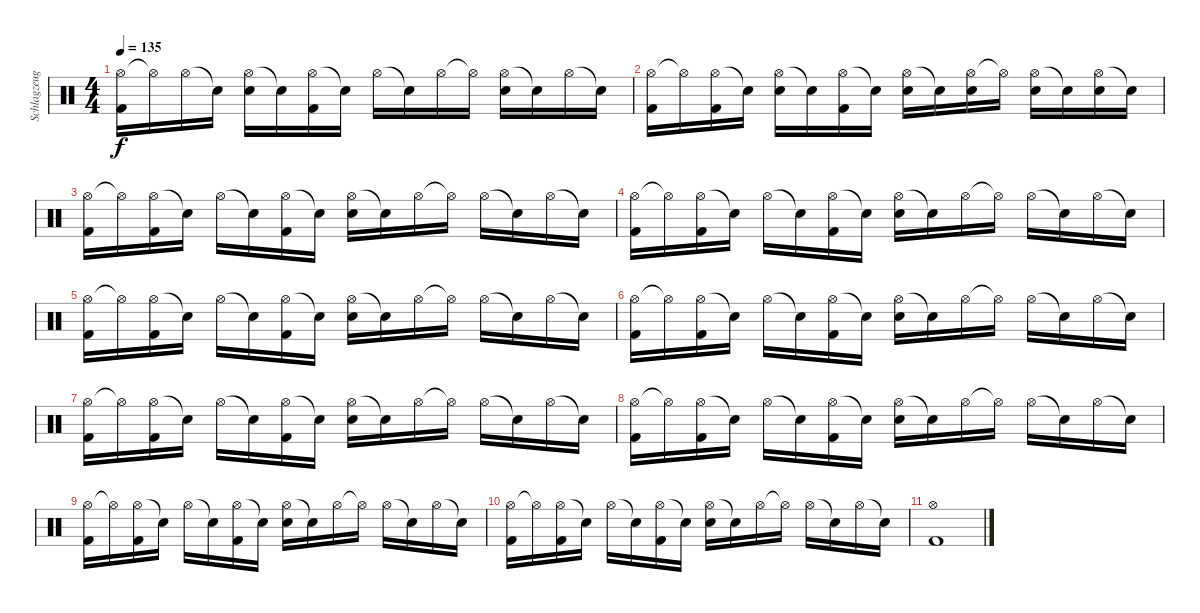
\track ("Schlagzeug" "Schlagzeug") {instrument percussion}
\staff {score}
\articulation defaults
\ts (4 4)
\tempo 135
\clef neutral
\ks c
("Hi-Hat (open)" "Kick (hit) 2").16{dy f} "Hi-Hat (open)"{t}.16 "Hi-Hat (open)".16 "Snare (hit)"{t}.16 ("Hi-Hat (open)" "Snare (hit) 2").16 "Snare (hit)"{t}.16 ("Hi-Hat (open)" "Kick (hit) 2").16 "Snare (hit)"{t}.16 "Hi-Hat (open)".16 "Snare (hit)"{t}.16 "Hi-Hat (open)".16 "Hi-Hat (open)"{t}.16 ("Hi-Hat (open)" "Snare (hit) 2").16 "Snare (hit)"{t}.16 "Hi-Hat (open)".16 "Snare (hit)"{t}.16 |
("Hi-Hat (open)" "Kick (hit) 2").16 "Hi-Hat (open)"{t}.16 ("Hi-Hat (open)" "Kick (hit) 2").16 "Snare (hit)"{t}.16 ("Hi-Hat (open)" "Snare (hit) 2").16 "Snare (hit)"{t}.16 ("Hi-Hat (open)" "Kick (hit) 2").16 "Snare (hit)"{t}.16 ("Hi-Hat (open)" "Snare (hit) 2").16 "Snare (hit)"{t}.16 ("Hi-Hat (open)" "Snare (hit) 2").16 "Hi-Hat (open)"{t}.16 ("Hi-Hat (open)" "Snare (hit) 2").16 "Snare (hit)"{t}.16 ("Hi-Hat (open)" "Snare (hit) 2").16 "Snare (hit)"{t}.16 |
("Hi-Hat (open)" "Kick (hit) 2").16 "Hi-Hat (open)"{t}.16 ("Hi-Hat (open)" "Kick (hit) 2").16 "Snare (hit)"{t}.16 "Hi-Hat (open)".16 "Snare (hit)"{t}.16 ("Hi-Hat (open)" "Kick (hit) 2").16 "Snare (hit)"{t}.16 ("Hi-Hat (open)" "Snare (hit) 2").16 "Snare (hit)"{t}.16 "Hi-Hat (open)".16 "Hi-Hat (open)"{t}.16 "Hi-Hat (open)".16 "Snare (hit)"{t}.16 "Hi-Hat (open)".16 "Snare (hit)"{t}.16 |
("Hi-Hat (open)" "Kick (hit) 2").16 "Hi-Hat (open)"{t}.16 ("Hi-Hat (open)" "Kick (hit) 2").16 "Snare (hit)"{t}.16 "Hi-Hat (open)".16 "Snare (hit)"{t}.16 ("Hi-Hat (open)" "Kick (hit) 2").16 "Snare (hit)"{t}.16 ("Hi-Hat (open)" "Snare (hit) 2").16 "Snare (hit)"{t}.16 "Hi-Hat (open)".16 "Hi-Hat (open)"{t}.16 "Hi-Hat (open)".16 "Snare (hit)"{t}.16 "Hi-Hat (open)".16 "Snare (hit)"{t}.16 |
("Hi-Hat (open)" "Kick (hit) 2").16 "Hi-Hat (open)"{t}.16 ("Hi-Hat (open)" "Kick (hit) 2").16 "Snare (hit)"{t}.16 "Hi-Hat (open)".16 "Snare (hit)"{t}.16 ("Hi-Hat (open)" "Kick (hit) 2").16 "Snare (hit)"{t}.16 ("Hi-Hat (open)" "Snare (hit) 2").16 "Snare (hit)"{t}.16 "Hi-Hat (open)".16 "Hi-Hat (open)"{t}.16 "Hi-Hat (open)".16 "Snare (hit)"{t}.16 "Hi-Hat (open)".16 "Snare (hit)"{t}.16 |
("Hi-Hat (open)" "Kick (hit) 2").16 "Hi-Hat (open)"{t}.16 ("Hi-Hat (open)" "Kick (hit) 2").16 "Snare (hit)"{t}.16 "Hi-Hat (open)".16 "Snare (hit)"{t}.16 ("Hi-Hat (open)" "Kick (hit) 2").16 "Snare (hit)"{t}.16 ("Hi-Hat (open)" "Snare (hit) 2").16 "Snare (hit)"{t}.16 "Hi-Hat (open)".16 "Hi-Hat (open)"{t}.16 "Hi-Hat (open)".16 "Snare (hit)"{t}.16 "Hi-Hat (open)".16 "Snare (hit)"{t}.16 |
("Hi-Hat (open)" "Kick (hit) 2").16 "Hi-Hat (open)"{t}.16 ("Hi-Hat (open)" "Kick (hit) 2").16 "Snare (hit)"{t}.16 "Hi-Hat (open)".16 "Snare (hit)"{t}.16 ("Hi-Hat (open)" "Kick (hit) 2").16 "Snare (hit)"{t}.16 ("Hi-Hat (open)" "Snare (hit) 2").16 "Snare (hit)"{t}.16 "Hi-Hat (open)".16 "Hi-Hat (open)"{t}.16 "Hi-Hat (open)".16 "Snare (hit)"{t}.16 "Hi-Hat (open)".16 "Snare (hit)"{t}.16 |
("Hi-Hat (open)" "Kick (hit) 2").16 "Hi-Hat (open)"{t}.16 ("Hi-Hat (open)" "Kick (hit) 2").16 "Snare (hit)"{t}.16 "Hi-Hat (open)".16 "Snare (hit)"{t}.16 ("Hi-Hat (open)" "Kick (hit) 2").16 "Snare (hit)"{t}.16 ("Hi-Hat (open)" "Snare (hit) 2").16 "Snare (hit)"{t}.16 "Hi-Hat (open)".16 "Hi-Hat (open)"{t}.16 "Hi-Hat (open)".16 "Snare (hit)"{t}.16 "Hi-Hat (open)".16 "Snare (hit)"{t}.16 |
("Hi-Hat (open)" "Kick (hit) 2").16 "Hi-Hat (open)"{t}.16 ("Hi-Hat (open)" "Kick (hit) 2").16 "Snare (hit)"{t}.16 "Hi-Hat (open)".16 "Snare (hit)"{t}.16 ("Hi-Hat (open)" "Kick (hit) 2").16 "Snare (hit)"{t}.16 ("Hi-Hat (open)" "Snare (hit) 2").16 "Snare (hit)"{t}.16 "Hi-Hat (open)".16 "Hi-Hat (open)"{t}.16 "Hi-Hat (open)".16 "Snare (hit)"{t}.16 "Hi-Hat (open)".16 "Snare (hit)"{t}.16 |
("Hi-Hat (open)" "Kick (hit) 2").16 "Hi-Hat (open)"{t}.16 ("Hi-Hat (open)" "Kick (hit) 2").16 "Snare (hit)"{t}.16 "Hi-Hat (open)".16 "Snare (hit)"{t}.16 ("Hi-Hat (open)" "Kick (hit) 2").16 "Snare (hit)"{t}.16 ("Hi-Hat (open)" "Snare (hit) 2").16 "Snare (hit)"{t}.16 "Hi-Hat (open)".16 "Hi-Hat (open)"{t}.16 "Hi-Hat (open)".16 "Snare (hit)"{t}.16 "Hi-Hat (open)".16 "Snare (hit)"{t}.16 |
("Hi-Hat (open)" "Kick (hit) 2").1
